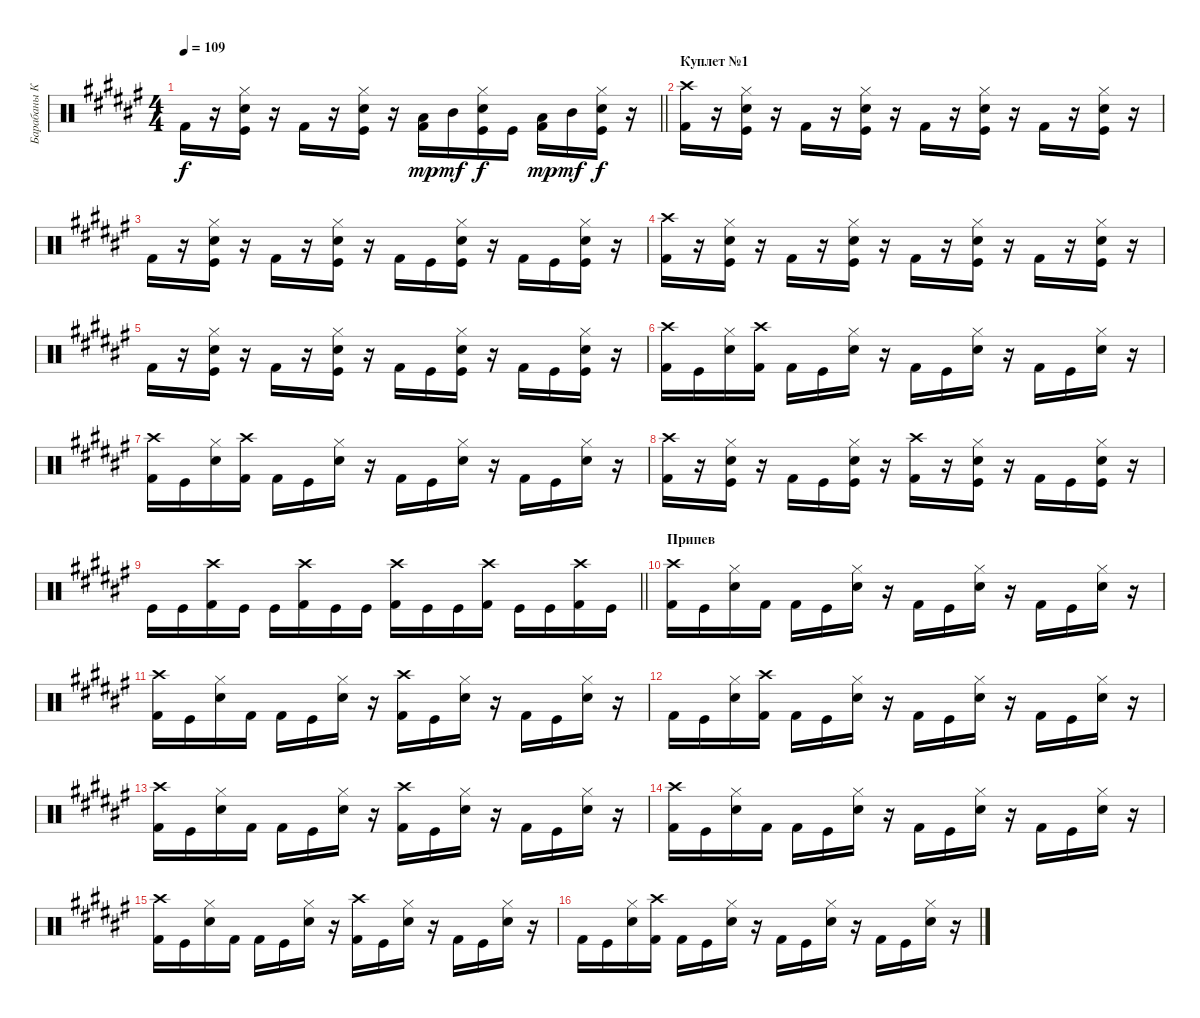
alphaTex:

\track ("Барабаны Кольян" "Барабаны К") {instrument percussion}
\staff {score}
\articulation defaults
\ts (4 4)
\tempo 109
\clef neutral
\barLineRight lightlight
\ks f# "Kick (hit) 2".16{dy f}
r.16 ("Hi-Hat (closed)" "Snare (hit) 2" "Kick (hit)").16 r.16 "Kick (hit) 2".16 r.16 ("Hi-Hat (closed)" "Snare (hit) 2" "Kick (hit)").16 r.16 ("Low Tom (hit)" "Kick (hit) 2").16{dy mp} "Mid Tom (hit)".16{dy mf} ("Hi-Hat (closed)" "Snare (hit) 2" "Kick (hit)").16{dy f} "Kick (hit)".16 ("Low Tom (hit)" "Kick (hit) 2").16{dy mp} "Mid Tom (hit)".16{dy mf} ("Hi-Hat (closed)" "Snare (hit) 2" "Kick (hit)").16{dy f} r.16 |
\section ("" "Куплет №1")
("Crash high (hit)" "Kick (hit) 2").16 r.16 ("Hi-Hat (closed)" "Snare (hit) 2" "Kick (hit)").16 r.16 "Kick (hit) 2".16 r.16 ("Hi-Hat (closed)" "Snare (hit) 2" "Kick (hit)").16 r.16 "Kick (hit) 2".16 r.16 ("Hi-Hat (closed)" "Snare (hit) 2" "Kick (hit)").16 r.16 "Kick (hit) 2".16 r.16 ("Hi-Hat (closed)" "Snare (hit) 2" "Kick (hit)").16 r.16 |
"Kick (hit) 2".16 r.16 ("Hi-Hat (closed)" "Snare (hit) 2" "Kick (hit)").16 r.16 "Kick (hit) 2".16 r.16 ("Hi-Hat (closed)" "Snare (hit) 2" "Kick (hit)").16 r.16 "Kick (hit) 2".16 "Kick (hit)".16 ("Hi-Hat (closed)" "Snare (hit) 2" "Kick (hit)").16 r.16 "Kick (hit) 2".16 "Kick (hit)".16 ("Hi-Hat (closed)" "Snare (hit) 2" "Kick (hit)").16 r.16 |
("Crash high (hit)" "Kick (hit) 2").16 r.16 ("Hi-Hat (closed)" "Snare (hit) 2" "Kick (hit)").16 r.16 "Kick (hit) 2".16 r.16 ("Hi-Hat (closed)" "Snare (hit) 2" "Kick (hit)").16 r.16 "Kick (hit) 2".16 r.16 ("Hi-Hat (closed)" "Snare (hit) 2" "Kick (hit)").16 r.16 "Kick (hit) 2".16 r.16 ("Hi-Hat (closed)" "Snare (hit) 2" "Kick (hit)").16 r.16 |
"Kick (hit) 2".16 r.16 ("Hi-Hat (closed)" "Snare (hit) 2" "Kick (hit)").16 r.16 "Kick (hit) 2".16 r.16 ("Hi-Hat (closed)" "Snare (hit) 2" "Kick (hit)").16 r.16 "Kick (hit) 2".16 "Kick (hit)".16 ("Hi-Hat (closed)" "Snare (hit) 2" "Kick (hit)").16 r.16 "Kick (hit) 2".16 "Kick (hit)".16 ("Hi-Hat (closed)" "Snare (hit) 2" "Kick (hit)").16 r.16 |
("Crash high (hit)" "Kick (hit) 2").16 "Kick (hit)".16 ("Hi-Hat (closed)" "Snare (hit) 2").16 ("Crash high (hit)" "Kick (hit) 2").16 "Kick (hit) 2".16 "Kick (hit)".16 ("Hi-Hat (closed)" "Snare (hit) 2").16 r.16 "Kick (hit) 2".16 "Kick (hit)".16 ("Hi-Hat (closed)" "Snare (hit) 2").16 r.16 "Kick (hit) 2".16 "Kick (hit)".16 ("Hi-Hat (closed)" "Snare (hit) 2").16 r.16 |
("Crash high (hit)" "Kick (hit) 2").16 "Kick (hit)".16 ("Hi-Hat (closed)" "Snare (hit) 2").16 ("Crash high (hit)" "Kick (hit) 2").16 "Kick (hit) 2".16 "Kick (hit)".16 ("Hi-Hat (closed)" "Snare (hit) 2").16 r.16 "Kick (hit) 2".16 "Kick (hit)".16 ("Hi-Hat (closed)" "Snare (hit) 2").16 r.16 "Kick (hit) 2".16 "Kick (hit)".16 ("Hi-Hat (closed)" "Snare (hit) 2").16 r.16 |
("Crash high (hit)" "Kick (hit) 2").16 r.16 ("Hi-Hat (closed)" "Snare (hit) 2" "Kick (hit)").16 r.16 "Kick (hit) 2".16 "Kick (hit)".16 ("Hi-Hat (closed)" "Snare (hit) 2" "Kick (hit)").16 r.16 ("Crash high (hit)" "Kick (hit) 2").16 r.16 ("Hi-Hat (closed)" "Snare (hit) 2" "Kick (hit)").16 r.16 "Kick (hit) 2".16 "Kick (hit)".16 ("Hi-Hat (closed)" "Snare (hit) 2" "Kick (hit)").16 r.16 |
\barLineRight lightlight "Kick (hit)".16 "Kick (hit)".16
("Crash high (hit)" "Kick (hit) 2").16 "Kick (hit)".16 "Kick (hit)".16 ("Crash high (hit)" "Kick (hit) 2").16 "Kick (hit)".16 "Kick (hit)".16 ("Crash high (hit)" "Kick (hit) 2").16 "Kick (hit)".16 "Kick (hit)".16 ("Crash high (hit)" "Kick (hit) 2").16 "Kick (hit)".16 "Kick (hit)".16 ("Crash high (hit)" "Kick (hit) 2").16 "Kick (hit)".16 |
\section ("" "Припев")
("Crash high (hit)" "Kick (hit) 2").16 "Kick (hit)".16 ("Hi-Hat (closed)" "Snare (hit) 2").16 "Kick (hit) 2".16 "Kick (hit) 2".16 "Kick (hit)".16 ("Hi-Hat (closed)" "Snare (hit) 2").16 r.16 "Kick (hit) 2".16 "Kick (hit)".16 ("Hi-Hat (closed)" "Snare (hit) 2").16 r.16 "Kick (hit) 2".16 "Kick (hit)".16 ("Hi-Hat (closed)" "Snare (hit) 2").16 r.16 |
("Crash high (hit)" "Kick (hit) 2").16 "Kick (hit)".16 ("Hi-Hat (closed)" "Snare (hit) 2").16 "Kick (hit) 2".16 "Kick (hit) 2".16 "Kick (hit)".16 ("Hi-Hat (closed)" "Snare (hit) 2").16 r.16 ("Crash high (hit)" "Kick (hit) 2").16 "Kick (hit)".16 ("Hi-Hat (closed)" "Snare (hit) 2").16 r.16 "Kick (hit) 2".16 "Kick (hit)".16 ("Hi-Hat (closed)" "Snare (hit) 2").16 r.16 |
"Kick (hit) 2".16 "Kick (hit)".16 ("Hi-Hat (closed)" "Snare (hit) 2").16 ("Crash high (hit)" "Kick (hit) 2").16 "Kick (hit) 2".16 "Kick (hit)".16 ("Hi-Hat (closed)" "Snare (hit) 2").16 r.16 "Kick (hit) 2".16 "Kick (hit)".16 ("Hi-Hat (closed)" "Snare (hit) 2").16 r.16 "Kick (hit) 2".16 "Kick (hit)".16 ("Hi-Hat (closed)" "Snare (hit) 2").16 r.16 |
("Crash high (hit)" "Kick (hit) 2").16 "Kick (hit)".16 ("Hi-Hat (closed)" "Snare (hit) 2").16 "Kick (hit) 2".16 "Kick (hit) 2".16 "Kick (hit)".16 ("Hi-Hat (closed)" "Snare (hit) 2").16 r.16 ("Crash high (hit)" "Kick (hit) 2").16 "Kick (hit)".16 ("Hi-Hat (closed)" "Snare (hit) 2").16 r.16 "Kick (hit) 2".16 "Kick (hit)".16 ("Hi-Hat (closed)" "Snare (hit) 2").16 r.16 |
("Crash high (hit)" "Kick (hit) 2").16 "Kick (hit)".16 ("Hi-Hat (closed)" "Snare (hit) 2").16 "Kick (hit) 2".16 "Kick (hit) 2".16 "Kick (hit)".16 ("Hi-Hat (closed)" "Snare (hit) 2").16 r.16 "Kick (hit) 2".16 "Kick (hit)".16 ("Hi-Hat (closed)" "Snare (hit) 2").16 r.16 "Kick (hit) 2".16 "Kick (hit)".16 ("Hi-Hat (closed)" "Snare (hit) 2").16 r.16 |
("Crash high (hit)" "Kick (hit) 2").16 "Kick (hit)".16 ("Hi-Hat (closed)" "Snare (hit) 2").16 "Kick (hit) 2".16 "Kick (hit) 2".16 "Kick (hit)".16 ("Hi-Hat (closed)" "Snare (hit) 2").16 r.16 ("Crash high (hit)" "Kick (hit) 2").16 "Kick (hit)".16 ("Hi-Hat (closed)" "Snare (hit) 2").16 r.16 "Kick (hit) 2".16 "Kick (hit)".16 ("Hi-Hat (closed)" "Snare (hit) 2").16 r.16 |
"Kick (hit) 2".16 "Kick (hit)".16 ("Hi-Hat (closed)" "Snare (hit) 2").16 ("Crash high (hit)" "Kick (hit) 2").16 "Kick (hit) 2".16 "Kick (hit)".16 ("Hi-Hat (closed)" "Snare (hit) 2").16 r.16 "Kick (hit) 2".16 "Kick (hit)".16 ("Hi-Hat (closed)" "Snare (hit) 2").16 r.16 "Kick (hit) 2".16 "Kick (hit)".16 ("Hi-Hat (closed)" "Snare (hit) 2").16 r.16
